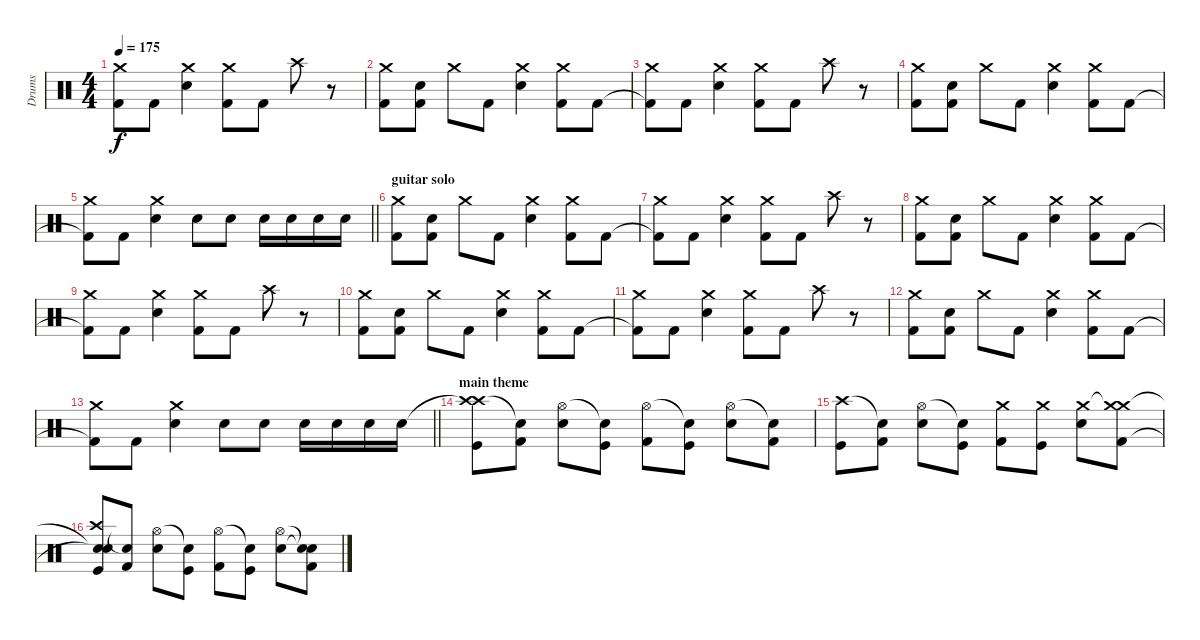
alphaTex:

\track ("Drums" "Drums") {instrument percussion}
\staff {score}
\articulation defaults
\ts (4 4)
\tempo 175
\clef neutral
\ks c
("Kick (hit) 2"{t} "Crash medium (hit)").8{dy f} "Kick (hit) 2".8 ("Snare (hit) 2" "Crash medium (hit)").4 ("Kick (hit) 2" "Crash medium (hit)").8 "Kick (hit) 2".8 "Crash high (hit)".8 r.8 |
("Kick (hit) 2" "Crash medium (hit)").8 ("Kick (hit) 2" "Snare (hit) 2").8 "Crash medium (hit)".8 "Kick (hit) 2".8 ("Snare (hit) 2" "Crash medium (hit)").4 ("Kick (hit) 2" "Crash medium (hit)").8 "Kick (hit) 2".8 |
("Kick (hit) 2"{t} "Crash medium (hit)").8 "Kick (hit) 2".8 ("Snare (hit) 2" "Crash medium (hit)").4 ("Kick (hit) 2" "Crash medium (hit)").8 "Kick (hit) 2".8 "Crash high (hit)".8 r.8 |
("Kick (hit) 2" "Crash medium (hit)").8 ("Kick (hit) 2" "Snare (hit) 2").8 "Crash medium (hit)".8 "Kick (hit) 2".8 ("Snare (hit) 2" "Crash medium (hit)").4 ("Kick (hit) 2" "Crash medium (hit)").8 "Kick (hit) 2".8 |
\barLineRight lightlight
("Kick (hit) 2"{t} "Crash medium (hit)").8 "Kick (hit) 2".8 ("Snare (hit) 2" "Crash medium (hit)").4 "Snare (hit) 2".8 "Snare (hit) 2".8 "Snare (hit) 2".16 "Snare (hit) 2".16 "Snare (hit) 2".16 "Snare (hit) 2".16 |
\section ("" "guitar solo")
("Kick (hit) 2" "Crash medium (hit)").8 ("Kick (hit) 2" "Snare (hit) 2").8 "Crash medium (hit)".8 "Kick (hit) 2".8 ("Snare (hit) 2" "Crash medium (hit)").4 ("Kick (hit) 2" "Crash medium (hit)").8 "Kick (hit) 2".8 |
("Kick (hit) 2"{t} "Crash medium (hit)").8 "Kick (hit) 2".8 ("Snare (hit) 2" "Crash medium (hit)").4 ("Kick (hit) 2" "Crash medium (hit)").8 "Kick (hit) 2".8 "Crash high (hit)".8 r.8 |
("Kick (hit) 2" "Crash medium (hit)").8 ("Kick (hit) 2" "Snare (hit) 2").8 "Crash medium (hit)".8 "Kick (hit) 2".8 ("Snare (hit) 2" "Crash medium (hit)").4 ("Kick (hit) 2" "Crash medium (hit)").8 "Kick (hit) 2".8 |
("Kick (hit) 2"{t} "Crash medium (hit)").8 "Kick (hit) 2".8 ("Snare (hit) 2" "Crash medium (hit)").4 ("Kick (hit) 2" "Crash medium (hit)").8 "Kick (hit) 2".8 "Crash high (hit)".8 r.8 |
("Kick (hit) 2" "Crash medium (hit)").8 ("Kick (hit) 2" "Snare (hit) 2").8 "Crash medium (hit)".8 "Kick (hit) 2".8 ("Snare (hit) 2" "Crash medium (hit)").4 ("Kick (hit) 2" "Crash medium (hit)").8 "Kick (hit) 2".8 |
("Kick (hit) 2"{t} "Crash medium (hit)").8 "Kick (hit) 2".8 ("Snare (hit) 2" "Crash medium (hit)").4 ("Kick (hit) 2" "Crash medium (hit)").8 "Kick (hit) 2".8 "Crash high (hit)".8 r.8 |
("Kick (hit) 2" "Crash medium (hit)").8 ("Kick (hit) 2" "Snare (hit) 2").8 "Crash medium (hit)".8 "Kick (hit) 2".8 ("Snare (hit) 2" "Crash medium (hit)").4 ("Kick (hit) 2" "Crash medium (hit)").8 "Kick (hit) 2".8 |
\barLineRight lightlight
("Kick (hit) 2"{t} "Crash medium (hit)").8 "Kick (hit) 2".8 ("Snare (hit) 2" "Crash medium (hit)").4 "Snare (hit) 2".8 "Snare (hit) 2".8 "Snare (hit) 2".16 "Snare (hit) 2".16 "Snare (hit) 2".16 "Snare (hit) 2".16 |
\section ("" "main theme")
("Crash high (hit)"{t} "Crash high (hit)" "Kick (hit)").8 ("Snare (hit)"{t} "Kick (hit) 2").8 ("Hi-Hat (open)" "Snare (hit) 2").8 ("Snare (hit)"{t} "Kick (hit)").8 ("Hi-Hat (open)" "Kick (hit) 2").8 ("Snare (hit)"{t} "Kick (hit)").8 ("Hi-Hat (open)" "Snare (hit) 2").8 ("Snare (hit)"{t} "Kick (hit) 2").8 |
("Crash high (hit)" "Kick (hit)").8 ("Snare (hit)"{t} "Kick (hit) 2").8 ("Hi-Hat (open)" "Snare (hit) 2").8 ("Snare (hit)"{t} "Kick (hit)").8 ("Crash medium (hit)" "Kick (hit) 2").8 ("Crash medium (hit)" "Kick (hit)").8 ("Crash medium (hit)" "Snare (hit) 2").8 ("Crash medium (hit)"{t} "Crash medium (hit)" "Kick (hit) 2").8 |
("Crash high (hit)" "Snare (hit)"{t} "Snare (hit)"{t} "Kick (hit)").8 ("Snare (hit)"{t} "Kick (hit) 2").8 ("Hi-Hat (open)" "Snare (hit) 2").8 ("Snare (hit)"{t} "Kick (hit)").8 ("Hi-Hat (open)" "Kick (hit) 2").8 ("Snare (hit)"{t} "Kick (hit)").8 ("Hi-Hat (open)" "Snare (hit) 2").8 ("Snare (hit)"{t} "Snare (hit)"{t} "Kick (hit) 2").8
